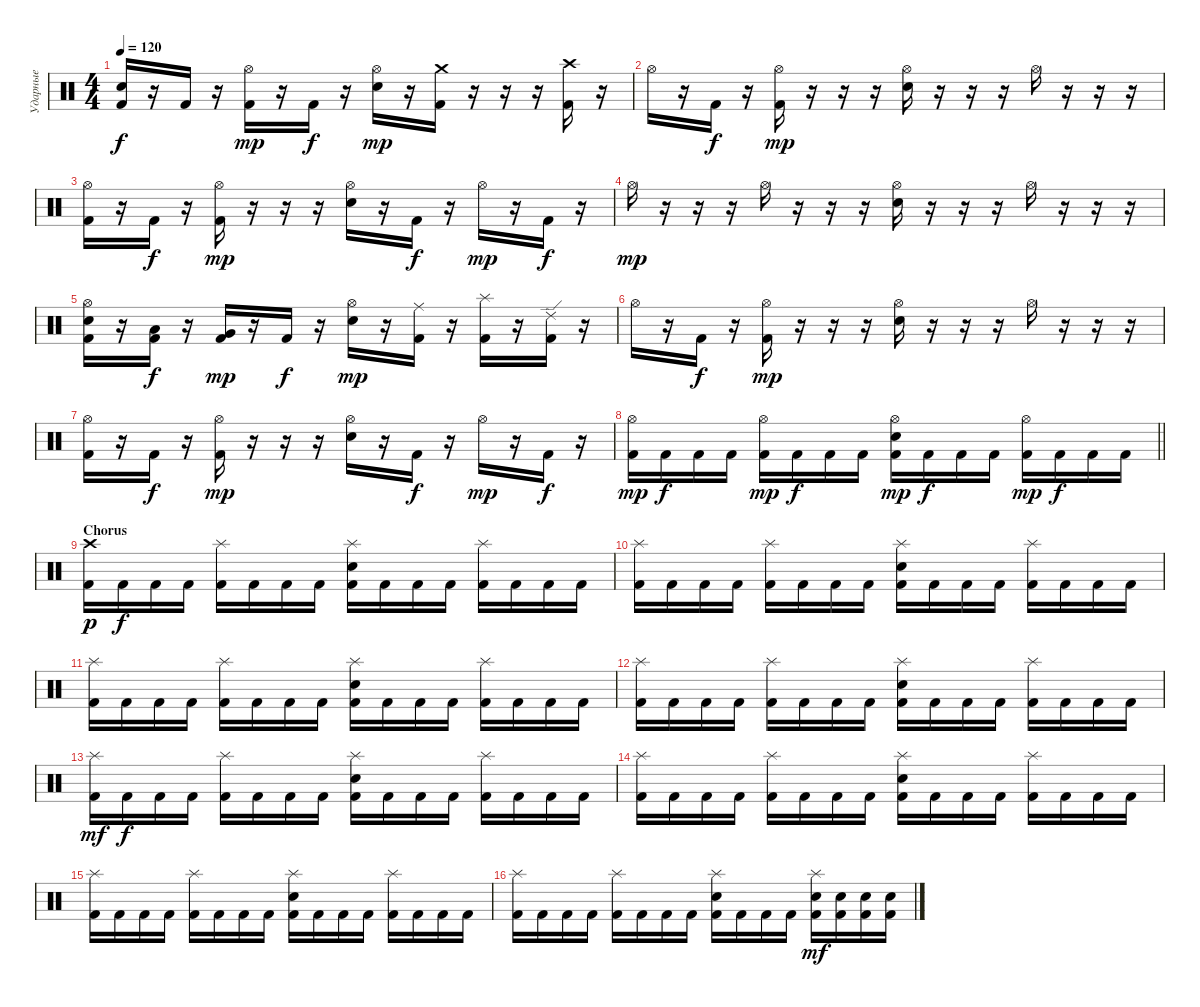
\track ("Ударные" "Ударные") {instrument percussion}
\staff {score}
\articulation defaults
\ts (4 4)
\tempo 120
\clef neutral
\ks c
("Kick (hit) 2" "Snare (hit) 2").16{dy f} r.16 "Kick (hit) 2".16 r.16 ("Kick (hit) 2" "Hi-Hat (open)").16{dy mp} r.16 "Kick (hit) 2".16{dy f} r.16 ("Hi-Hat (open)" "Snare (hit) 2").16{dy mp} r.16 ("Kick (hit) 2" "Crash medium (hit)").16 r.16 r.16 r.16 ("Kick (hit) 2" "Crash high (hit)").16 r.16 |
"Hi-Hat (open)".16 r.16 "Kick (hit) 2".16{dy f} r.16 ("Kick (hit) 2" "Hi-Hat (open)").16{dy mp} r.16 r.16 r.16 ("Hi-Hat (open)" "Snare (hit) 2").16 r.16 r.16 r.16 "Hi-Hat (open)".16 r.16 r.16 r.16 |
("Kick (hit) 2" "Hi-Hat (open)").16 r.16 "Kick (hit) 2".16{dy f} r.16 ("Kick (hit) 2" "Hi-Hat (open)").16{dy mp} r.16 r.16 r.16 ("Hi-Hat (open)" "Snare (hit) 2").16 r.16 "Kick (hit) 2".16{dy f} r.16 "Hi-Hat (open)".16{dy mp} r.16 "Kick (hit) 2".16{dy f} r.16 |
"Hi-Hat (open)".16{dy mp} r.16 r.16 r.16 "Hi-Hat (open)".16 r.16 r.16 r.16 ("Hi-Hat (open)" "Snare (hit) 2").16 r.16 r.16 r.16 "Hi-Hat (open)".16 r.16 r.16 r.16 |
("Kick (hit) 2" "Hi-Hat (open)" "Snare (hit) 2").16 r.16 ("Kick (hit) 2" "Low Tom (hit)").16{dy f} r.16 ("Kick (hit) 2" "Very Low Tom (hit)").16{dy mp} r.16 "Kick (hit) 2".16{dy f} r.16 ("Hi-Hat (open)" "Snare (hit) 2").16{dy mp} r.16 ("Kick (hit) 2" "Ride (middle)").16 r.16 ("Kick (hit) 2" "Splash (hit)").16 r.16 ("Kick (hit) 2" "Ride (edge) 2").16 r.16 |
"Hi-Hat (open)".16 r.16 "Kick (hit) 2".16{dy f} r.16 ("Kick (hit) 2" "Hi-Hat (open)").16{dy mp} r.16 r.16 r.16 ("Hi-Hat (open)" "Snare (hit) 2").16 r.16 r.16 r.16 "Hi-Hat (open)".16 r.16 r.16 r.16 |
("Kick (hit) 2" "Hi-Hat (open)").16 r.16 "Kick (hit) 2".16{dy f} r.16 ("Kick (hit) 2" "Hi-Hat (open)").16{dy mp} r.16 r.16 r.16 ("Hi-Hat (open)" "Snare (hit) 2").16 r.16 "Kick (hit) 2".16{dy f} r.16 "Hi-Hat (open)".16{dy mp} r.16 "Kick (hit) 2".16{dy f} r.16 |
\barLineRight lightlight
("Kick (hit) 2" "Hi-Hat (open)").16{dy mp} "Kick (hit) 2".16{dy f} "Kick (hit) 2".16 "Kick (hit) 2".16 ("Kick (hit) 2" "Hi-Hat (open)").16{dy mp} "Kick (hit) 2".16{dy f} "Kick (hit) 2".16 "Kick (hit) 2".16 ("Kick (hit) 2" "Hi-Hat (open)" "Snare (hit) 2").16{dy mp} "Kick (hit) 2".16{dy f} "Kick (hit) 2".16 "Kick (hit) 2".16 ("Kick (hit) 2" "Hi-Hat (open)").16{dy mp} "Kick (hit) 2".16{dy f} "Kick (hit) 2".16 "Kick (hit) 2".16 |
\section ("" "Chorus")
("Kick (hit) 2" "Crash high (hit)").16{dy p} "Kick (hit) 2".16{dy f} "Kick (hit) 2".16 "Kick (hit) 2".16 ("Kick (hit) 2" "Splash (hit)").16 "Kick (hit) 2".16 "Kick (hit) 2".16 "Kick (hit) 2".16 ("Kick (hit) 2" "Splash (hit)" "Snare (hit) 2").16 "Kick (hit) 2".16 "Kick (hit) 2".16 "Kick (hit) 2".16 ("Kick (hit) 2" "Splash (hit)").16 "Kick (hit) 2".16 "Kick (hit) 2".16 "Kick (hit) 2".16 |
("Kick (hit) 2" "Splash (hit)").16 "Kick (hit) 2".16 "Kick (hit) 2".16 "Kick (hit) 2".16 ("Kick (hit) 2" "Splash (hit)").16 "Kick (hit) 2".16 "Kick (hit) 2".16 "Kick (hit) 2".16 ("Kick (hit) 2" "Splash (hit)" "Snare (hit) 2").16 "Kick (hit) 2".16 "Kick (hit) 2".16 "Kick (hit) 2".16 ("Kick (hit) 2" "Splash (hit)").16 "Kick (hit) 2".16 "Kick (hit) 2".16 "Kick (hit) 2".16 |
("Kick (hit) 2" "Splash (hit)").16 "Kick (hit) 2".16 "Kick (hit) 2".16 "Kick (hit) 2".16 ("Kick (hit) 2" "Splash (hit)").16 "Kick (hit) 2".16 "Kick (hit) 2".16 "Kick (hit) 2".16 ("Kick (hit) 2" "Splash (hit)" "Snare (hit) 2").16 "Kick (hit) 2".16 "Kick (hit) 2".16 "Kick (hit) 2".16 ("Kick (hit) 2" "Splash (hit)").16 "Kick (hit) 2".16 "Kick (hit) 2".16 "Kick (hit) 2".16 |
("Kick (hit) 2" "Splash (hit)").16 "Kick (hit) 2".16 "Kick (hit) 2".16 "Kick (hit) 2".16 ("Kick (hit) 2" "Splash (hit)").16 "Kick (hit) 2".16 "Kick (hit) 2".16 "Kick (hit) 2".16 ("Kick (hit) 2" "Splash (hit)" "Snare (hit) 2").16 "Kick (hit) 2".16 "Kick (hit) 2".16 "Kick (hit) 2".16 ("Kick (hit) 2" "Splash (hit)").16 "Kick (hit) 2".16 "Kick (hit) 2".16 "Kick (hit) 2".16 |
("Kick (hit) 2" "Splash (hit)").16{dy mf} "Kick (hit) 2".16{dy f} "Kick (hit) 2".16 "Kick (hit) 2".16 ("Kick (hit) 2" "Splash (hit)").16 "Kick (hit) 2".16 "Kick (hit) 2".16 "Kick (hit) 2".16 ("Kick (hit) 2" "Splash (hit)" "Snare (hit) 2").16 "Kick (hit) 2".16 "Kick (hit) 2".16 "Kick (hit) 2".16 ("Kick (hit) 2" "Splash (hit)").16 "Kick (hit) 2".16 "Kick (hit) 2".16 "Kick (hit) 2".16 |
("Kick (hit) 2" "Splash (hit)").16 "Kick (hit) 2".16 "Kick (hit) 2".16 "Kick (hit) 2".16 ("Kick (hit) 2" "Splash (hit)").16 "Kick (hit) 2".16 "Kick (hit) 2".16 "Kick (hit) 2".16 ("Kick (hit) 2" "Splash (hit)" "Snare (hit) 2").16 "Kick (hit) 2".16 "Kick (hit) 2".16 "Kick (hit) 2".16 ("Kick (hit) 2" "Splash (hit)").16 "Kick (hit) 2".16 "Kick (hit) 2".16 "Kick (hit) 2".16 |
("Kick (hit) 2" "Splash (hit)").16 "Kick (hit) 2".16 "Kick (hit) 2".16 "Kick (hit) 2".16 ("Kick (hit) 2" "Splash (hit)").16 "Kick (hit) 2".16 "Kick (hit) 2".16 "Kick (hit) 2".16 ("Kick (hit) 2" "Splash (hit)" "Snare (hit) 2").16 "Kick (hit) 2".16 "Kick (hit) 2".16 "Kick (hit) 2".16 ("Kick (hit) 2" "Splash (hit)").16 "Kick (hit) 2".16 "Kick (hit) 2".16 "Kick (hit) 2".16 |
("Kick (hit) 2" "Splash (hit)").16 "Kick (hit) 2".16 "Kick (hit) 2".16 "Kick (hit) 2".16 ("Kick (hit) 2" "Splash (hit)").16 "Kick (hit) 2".16 "Kick (hit) 2".16 "Kick (hit) 2".16 ("Kick (hit) 2" "Splash (hit)" "Snare (hit) 2").16 "Kick (hit) 2".16 "Kick (hit) 2".16 "Kick (hit) 2".16 ("Kick (hit) 2" "Splash (hit)" "Snare (hit) 2").16{dy mf} ("Kick (hit) 2" "Snare (hit) 2").16 ("Kick (hit) 2" "Snare (hit) 2").16 ("Kick (hit) 2" "Snare (hit) 2").16
